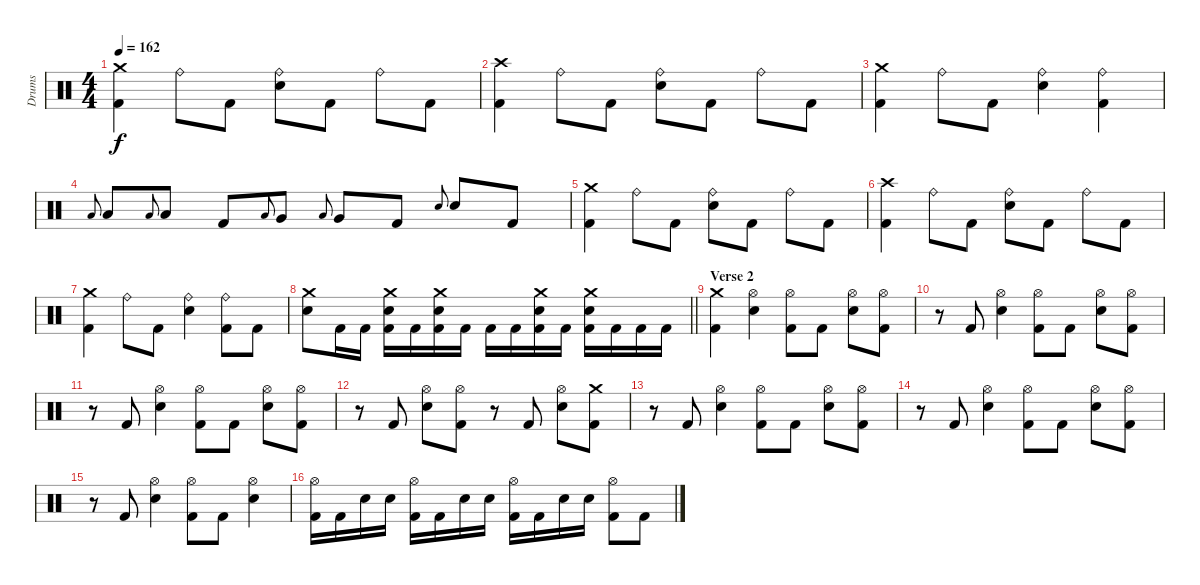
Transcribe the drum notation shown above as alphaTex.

\track ("Drums" "Drums") {instrument percussion}
\staff {score}
\articulation defaults
\ts (4 4)
\tempo 162
\clef neutral
\ks c
("Crash medium (hit)" "Kick (hit) 2").4{dy f} "Ride (bell)".8 "Kick (hit) 2".8 ("Ride (bell)" "Snare (hit) 2").8 "Kick (hit) 2".8 "Ride (bell)".8 "Kick (hit) 2".8 |
("Crash high (hit)" "Kick (hit) 2").4 "Ride (bell)".8 "Kick (hit) 2".8 ("Ride (bell)" "Snare (hit) 2").8 "Kick (hit) 2".8 "Ride (bell)".8 "Kick (hit) 2".8 |
("Crash medium (hit)" "Kick (hit) 2").4 "Ride (bell)".8 "Kick (hit) 2".8 ("Ride (bell)" "Snare (hit) 2").4 ("Ride (bell)" "Kick (hit) 2").4 |
"Low Tom (hit)".8{gr onbeat} "Low Tom (hit)".8 "Low Tom (hit)".8{gr onbeat} "Low Tom (hit)".8 "Kick (hit) 2".8 "Low Floor Tom (hit)".8{gr onbeat} "Very Low Tom (hit)".8 "Low Floor Tom (hit)".8{gr onbeat} "Very Low Tom (hit)".8 "Kick (hit) 2".8 "Snare (hit) 2".8{gr onbeat} "Snare (hit) 2".8 "Kick (hit) 2".8 |
("Crash medium (hit)" "Kick (hit) 2").4 "Ride (bell)".8 "Kick (hit) 2".8 ("Ride (bell)" "Snare (hit) 2").8 "Kick (hit) 2".8 "Ride (bell)".8 "Kick (hit) 2".8 |
("Crash high (hit)" "Kick (hit) 2").4 "Ride (bell)".8 "Kick (hit) 2".8 ("Ride (bell)" "Snare (hit) 2").8 "Kick (hit) 2".8 "Ride (bell)".8 "Kick (hit) 2".8 |
("Crash medium (hit)" "Kick (hit) 2").4 "Ride (bell)".8 "Kick (hit) 2".8 ("Ride (bell)" "Snare (hit) 2").4 ("Ride (bell)" "Kick (hit) 2").8 "Kick (hit) 2".8 |
\barLineRight lightlight
("Crash medium (hit)" "Snare (hit) 2").8 "Kick (hit) 2".16 "Kick (hit) 2".16 ("Crash medium (hit)" "Snare (hit) 2" "Kick (hit) 2").16 "Kick (hit) 2".16 ("Crash medium (hit)" "Snare (hit) 2" "Kick (hit) 2").16 "Kick (hit) 2".16 "Kick (hit) 2".16 "Kick (hit) 2".16 ("Crash medium (hit)" "Snare (hit) 2" "Kick (hit) 2").16 "Kick (hit) 2".16 ("Crash medium (hit)" "Snare (hit) 2" "Kick (hit) 2").16 "Kick (hit) 2".16 "Kick (hit) 2".16 "Kick (hit) 2".16 |
\section ("" "Verse 2")
("Crash medium (hit)" "Kick (hit) 2").4 ("Hi-Hat (open)" "Snare (hit) 2").4 ("Hi-Hat (open)" "Kick (hit) 2").8 "Kick (hit) 2".8 ("Hi-Hat (open)" "Snare (hit) 2").8 ("Hi-Hat (open)" "Kick (hit) 2").8 |
r.8 "Kick (hit) 2".8 ("Hi-Hat (open)" "Snare (hit) 2").4 ("Hi-Hat (open)" "Kick (hit) 2").8 "Kick (hit) 2".8 ("Hi-Hat (open)" "Snare (hit) 2").8 ("Hi-Hat (open)" "Kick (hit) 2").8 |
r.8 "Kick (hit) 2".8 ("Hi-Hat (open)" "Snare (hit) 2").4 ("Hi-Hat (open)" "Kick (hit) 2").8 "Kick (hit) 2".8 ("Hi-Hat (open)" "Snare (hit) 2").8 ("Hi-Hat (open)" "Kick (hit) 2").8 |
r.8 "Kick (hit) 2".8 ("Hi-Hat (open)" "Snare (hit) 2").8 ("Hi-Hat (open)" "Kick (hit) 2").8 r.8 "Kick (hit) 2".8 ("Hi-Hat (open)" "Snare (hit) 2").8 ("Crash medium (hit)" "Kick (hit) 2").8 |
r.8 "Kick (hit) 2".8 ("Hi-Hat (open)" "Snare (hit) 2").4 ("Hi-Hat (open)" "Kick (hit) 2").8 "Kick (hit) 2".8 ("Hi-Hat (open)" "Snare (hit) 2").8 ("Hi-Hat (open)" "Kick (hit) 2").8 |
r.8 "Kick (hit) 2".8 ("Hi-Hat (open)" "Snare (hit) 2").4 ("Hi-Hat (open)" "Kick (hit) 2").8 "Kick (hit) 2".8 ("Hi-Hat (open)" "Snare (hit) 2").8 ("Hi-Hat (open)" "Kick (hit) 2").8 |
r.8 "Kick (hit) 2".8 ("Hi-Hat (open)" "Snare (hit) 2").4 ("Hi-Hat (open)" "Kick (hit) 2").8 "Kick (hit) 2".8 ("Hi-Hat (open)" "Snare (hit) 2").4 |
("Hi-Hat (open)" "Kick (hit) 2").16 "Kick (hit) 2".16 "Snare (hit) 2".16 "Snare (hit) 2".16 ("Hi-Hat (open)" "Kick (hit) 2").16 "Kick (hit) 2".16 "Snare (hit) 2".16 "Snare (hit) 2".16 ("Hi-Hat (open)" "Kick (hit) 2").16 "Kick (hit) 2".16 "Snare (hit) 2".16 "Snare (hit) 2".16 ("Hi-Hat (open)" "Kick (hit) 2").8 "Kick (hit) 2".8
